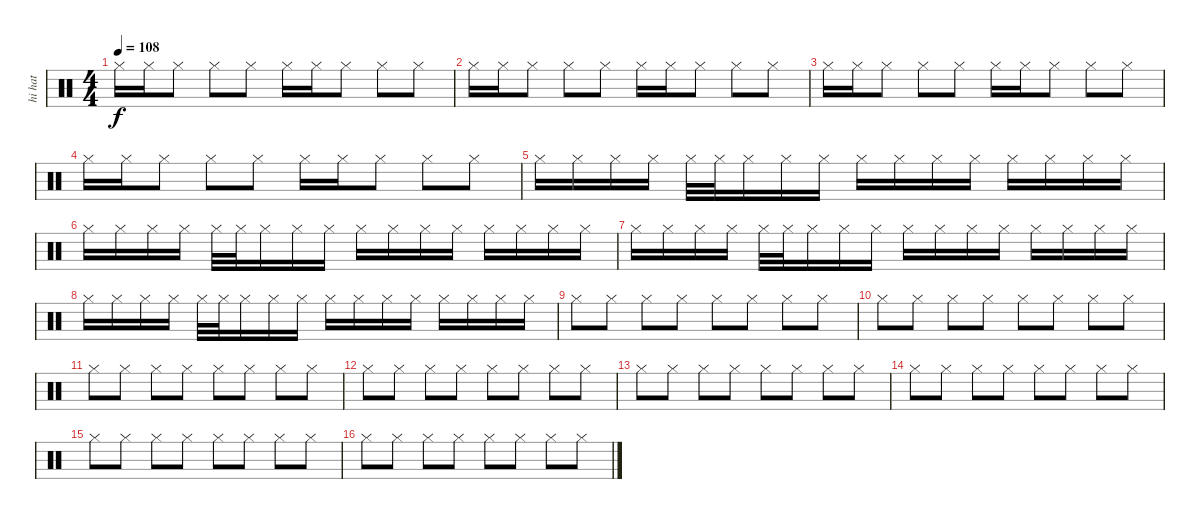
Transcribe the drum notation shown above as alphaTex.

\track ("hi hat              " "hi hat    ") {instrument percussion}
\staff {score}
\articulation defaults
\ts (4 4)
\tempo 108
\clef neutral
\ks c "Hi-Hat (closed)".16{dy f} "Hi-Hat (closed)".16 "Hi-Hat (closed)".8 "Hi-Hat (closed)".8 "Hi-Hat (closed)".8 "Hi-Hat (closed)".16 "Hi-Hat (closed)".16 "Hi-Hat (closed)".8 "Hi-Hat (closed)".8 "Hi-Hat (closed)".8
|
"Hi-Hat (closed)".16 "Hi-Hat (closed)".16 "Hi-Hat (closed)".8 "Hi-Hat (closed)".8 "Hi-Hat (closed)".8 "Hi-Hat (closed)".16 "Hi-Hat (closed)".16 "Hi-Hat (closed)".8 "Hi-Hat (closed)".8 "Hi-Hat (closed)".8 |
"Hi-Hat (closed)".16 "Hi-Hat (closed)".16 "Hi-Hat (closed)".8 "Hi-Hat (closed)".8 "Hi-Hat (closed)".8 "Hi-Hat (closed)".16 "Hi-Hat (closed)".16 "Hi-Hat (closed)".8 "Hi-Hat (closed)".8 "Hi-Hat (closed)".8 |
"Hi-Hat (closed)".16 "Hi-Hat (closed)".16 "Hi-Hat (closed)".8 "Hi-Hat (closed)".8 "Hi-Hat (closed)".8 "Hi-Hat (closed)".16 "Hi-Hat (closed)".16 "Hi-Hat (closed)".8 "Hi-Hat (closed)".8 "Hi-Hat (closed)".8 |
"Hi-Hat (closed)".16 "Hi-Hat (closed)".16 "Hi-Hat (closed)".16 "Hi-Hat (closed)".16 "Hi-Hat (closed)".32 "Hi-Hat (closed)".32 "Hi-Hat (closed)".16 "Hi-Hat (closed)".16 "Hi-Hat (closed)".16 "Hi-Hat (closed)".16 "Hi-Hat (closed)".16 "Hi-Hat (closed)".16 "Hi-Hat (closed)".16 "Hi-Hat (closed)".16 "Hi-Hat (closed)".16 "Hi-Hat (closed)".16 "Hi-Hat (closed)".16 |
"Hi-Hat (closed)".16 "Hi-Hat (closed)".16 "Hi-Hat (closed)".16 "Hi-Hat (closed)".16 "Hi-Hat (closed)".32 "Hi-Hat (closed)".32 "Hi-Hat (closed)".16 "Hi-Hat (closed)".16 "Hi-Hat (closed)".16 "Hi-Hat (closed)".16 "Hi-Hat (closed)".16 "Hi-Hat (closed)".16 "Hi-Hat (closed)".16 "Hi-Hat (closed)".16 "Hi-Hat (closed)".16 "Hi-Hat (closed)".16 "Hi-Hat (closed)".16 |
"Hi-Hat (closed)".16 "Hi-Hat (closed)".16 "Hi-Hat (closed)".16 "Hi-Hat (closed)".16 "Hi-Hat (closed)".32 "Hi-Hat (closed)".32 "Hi-Hat (closed)".16 "Hi-Hat (closed)".16 "Hi-Hat (closed)".16 "Hi-Hat (closed)".16 "Hi-Hat (closed)".16 "Hi-Hat (closed)".16 "Hi-Hat (closed)".16 "Hi-Hat (closed)".16 "Hi-Hat (closed)".16 "Hi-Hat (closed)".16 "Hi-Hat (closed)".16 |
"Hi-Hat (closed)".16 "Hi-Hat (closed)".16 "Hi-Hat (closed)".16 "Hi-Hat (closed)".16 "Hi-Hat (closed)".32 "Hi-Hat (closed)".32 "Hi-Hat (closed)".16 "Hi-Hat (closed)".16 "Hi-Hat (closed)".16 "Hi-Hat (closed)".16 "Hi-Hat (closed)".16 "Hi-Hat (closed)".16 "Hi-Hat (closed)".16 "Hi-Hat (closed)".16 "Hi-Hat (closed)".16 "Hi-Hat (closed)".16 "Hi-Hat (closed)".16 |
"Hi-Hat (closed)".8 "Hi-Hat (closed)".8 "Hi-Hat (closed)".8 "Hi-Hat (closed)".8 "Hi-Hat (closed)".8 "Hi-Hat (closed)".8 "Hi-Hat (closed)".8 "Hi-Hat (closed)".8 |
"Hi-Hat (closed)".8 "Hi-Hat (closed)".8 "Hi-Hat (closed)".8 "Hi-Hat (closed)".8 "Hi-Hat (closed)".8 "Hi-Hat (closed)".8 "Hi-Hat (closed)".8 "Hi-Hat (closed)".8 |
"Hi-Hat (closed)".8 "Hi-Hat (closed)".8 "Hi-Hat (closed)".8 "Hi-Hat (closed)".8 "Hi-Hat (closed)".8 "Hi-Hat (closed)".8 "Hi-Hat (closed)".8 "Hi-Hat (closed)".8 |
"Hi-Hat (closed)".8 "Hi-Hat (closed)".8 "Hi-Hat (closed)".8 "Hi-Hat (closed)".8 "Hi-Hat (closed)".8 "Hi-Hat (closed)".8 "Hi-Hat (closed)".8 "Hi-Hat (closed)".8 |
"Hi-Hat (closed)".8 "Hi-Hat (closed)".8 "Hi-Hat (closed)".8 "Hi-Hat (closed)".8 "Hi-Hat (closed)".8 "Hi-Hat (closed)".8 "Hi-Hat (closed)".8 "Hi-Hat (closed)".8 |
"Hi-Hat (closed)".8 "Hi-Hat (closed)".8 "Hi-Hat (closed)".8 "Hi-Hat (closed)".8 "Hi-Hat (closed)".8 "Hi-Hat (closed)".8 "Hi-Hat (closed)".8 "Hi-Hat (closed)".8 |
"Hi-Hat (closed)".8 "Hi-Hat (closed)".8 "Hi-Hat (closed)".8 "Hi-Hat (closed)".8 "Hi-Hat (closed)".8 "Hi-Hat (closed)".8 "Hi-Hat (closed)".8 "Hi-Hat (closed)".8 |
"Hi-Hat (closed)".8 "Hi-Hat (closed)".8 "Hi-Hat (closed)".8 "Hi-Hat (closed)".8 "Hi-Hat (closed)".8 "Hi-Hat (closed)".8 "Hi-Hat (closed)".8 "Hi-Hat (closed)".8
